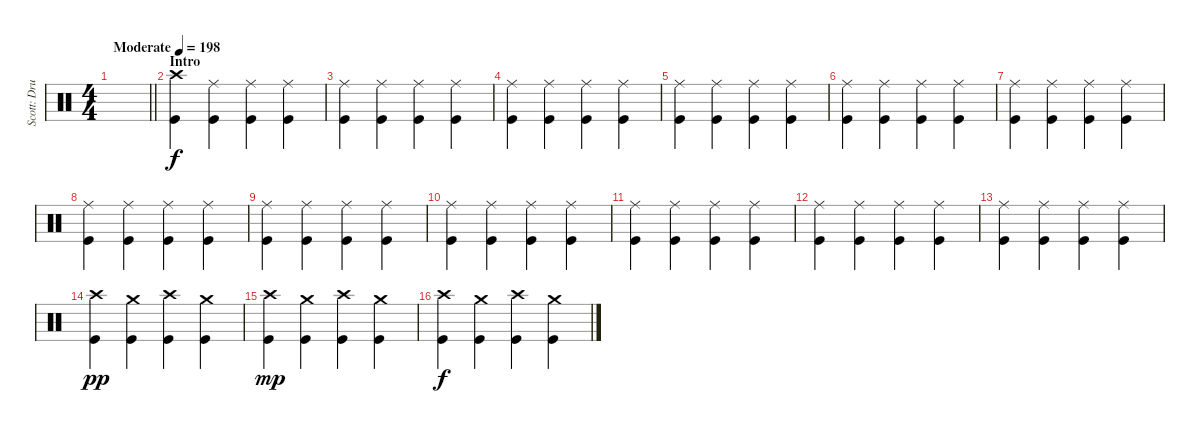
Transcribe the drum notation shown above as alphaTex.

\track ("Scott: Drums" "Scott: Dru") {instrument percussion}
\staff {score}
\articulation defaults
\ts (4 4)
\tempo (198 "Moderate")
\clef neutral
\barLineRight lightlight
\ks c
|
\section ("" "Intro")
("Crash high (hit)" "Kick (hit)").4 ("Ride (middle)" "Kick (hit)").4 ("Ride (middle)" "Kick (hit)").4 ("Ride (middle)" "Kick (hit)").4 |
("Ride (middle)" "Kick (hit)").4 ("Ride (middle)" "Kick (hit)").4 ("Ride (middle)" "Kick (hit)").4 ("Ride (middle)" "Kick (hit)").4 |
("Ride (middle)" "Kick (hit)").4 ("Ride (middle)" "Kick (hit)").4 ("Ride (middle)" "Kick (hit)").4 ("Ride (middle)" "Kick (hit)").4 |
("Ride (middle)" "Kick (hit)").4 ("Ride (middle)" "Kick (hit)").4 ("Ride (middle)" "Kick (hit)").4 ("Ride (middle)" "Kick (hit)").4 |
("Ride (middle)" "Kick (hit)").4 ("Ride (middle)" "Kick (hit)").4 ("Ride (middle)" "Kick (hit)").4 ("Ride (middle)" "Kick (hit)").4 |
("Ride (middle)" "Kick (hit)").4 ("Ride (middle)" "Kick (hit)").4 ("Ride (middle)" "Kick (hit)").4 ("Ride (middle)" "Kick (hit)").4 |
("Ride (middle)" "Kick (hit)").4 ("Ride (middle)" "Kick (hit)").4 ("Ride (middle)" "Kick (hit)").4 ("Ride (middle)" "Kick (hit)").4 |
("Ride (middle)" "Kick (hit)").4 ("Ride (middle)" "Kick (hit)").4 ("Ride (middle)" "Kick (hit)").4 ("Ride (middle)" "Kick (hit)").4 |
("Ride (middle)" "Kick (hit)").4 ("Ride (middle)" "Kick (hit)").4 ("Ride (middle)" "Kick (hit)").4 ("Ride (middle)" "Kick (hit)").4 |
("Ride (middle)" "Kick (hit)").4 ("Ride (middle)" "Kick (hit)").4 ("Ride (middle)" "Kick (hit)").4 ("Ride (middle)" "Kick (hit)").4 |
("Ride (middle)" "Kick (hit)").4 ("Ride (middle)" "Kick (hit)").4 ("Ride (middle)" "Kick (hit)").4 ("Ride (middle)" "Kick (hit)").4 |
("Ride (middle)" "Kick (hit)").4 ("Ride (middle)" "Kick (hit)").4 ("Ride (middle)" "Kick (hit)").4 ("Ride (middle)" "Kick (hit)").4 |
("Crash high (hit)" "Kick (hit)").4{dy pp} ("Crash medium (hit)" "Kick (hit)").4 ("Crash high (hit)" "Kick (hit)").4 ("Crash medium (hit)" "Kick (hit)").4 |
("Crash high (hit)" "Kick (hit)").4{dy mp} ("Crash medium (hit)" "Kick (hit)").4 ("Crash high (hit)" "Kick (hit)").4 ("Crash medium (hit)" "Kick (hit)").4 |
("Crash high (hit)" "Kick (hit)").4{dy f} ("Crash medium (hit)" "Kick (hit)").4 ("Crash high (hit)" "Kick (hit)").4 ("Crash medium (hit)" "Kick (hit)").4
